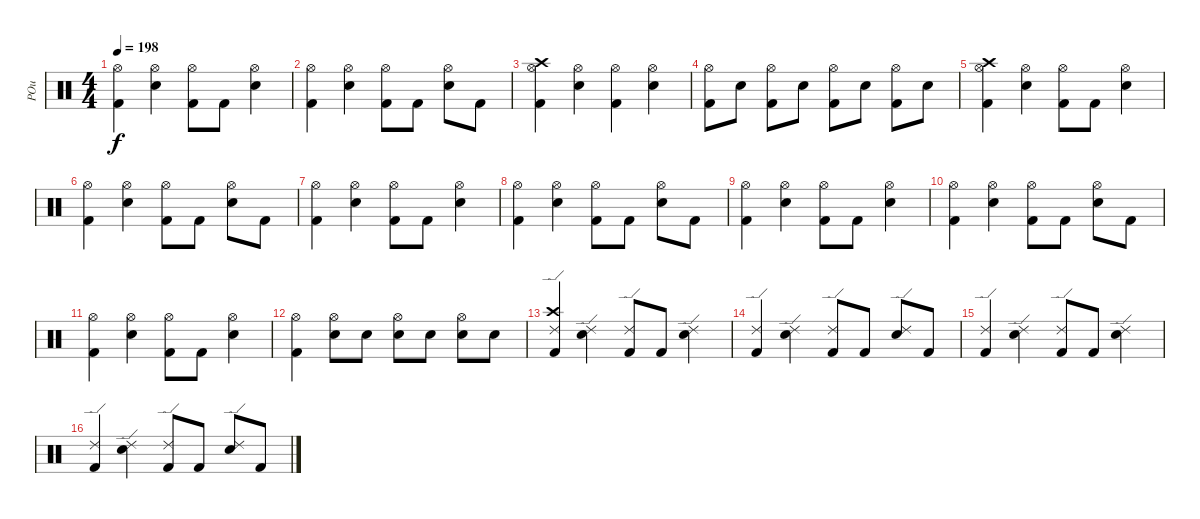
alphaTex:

\track ("POu" "POu") {instrument percussion}
\staff {score}
\articulation defaults
\ts (4 4)
\tempo 198
\clef neutral
\ks c
("Kick (hit) 2" "Hi-Hat (open)").4{dy f} ("Electric Snare (hit)" "Hi-Hat (open)").4 ("Kick (hit) 2" "Hi-Hat (open)").8 "Kick (hit) 2".8 ("Electric Snare (hit)" "Hi-Hat (open)").4 |
("Kick (hit) 2" "Hi-Hat (open)").4 ("Electric Snare (hit)" "Hi-Hat (open)").4 ("Kick (hit) 2" "Hi-Hat (open)").8 "Kick (hit) 2".8 ("Electric Snare (hit)" "Hi-Hat (open)").8 "Kick (hit) 2".8 |
("Crash high (hit)" "Kick (hit) 2" "Hi-Hat (open)").4 ("Electric Snare (hit)" "Hi-Hat (open)").4 ("Kick (hit) 2" "Hi-Hat (open)").4 ("Electric Snare (hit)" "Hi-Hat (open)").4 |
("Kick (hit) 2" "Hi-Hat (open)").8 "Electric Snare (hit)".8 ("Kick (hit) 2" "Hi-Hat (open)").8 "Electric Snare (hit)".8 ("Kick (hit) 2" "Hi-Hat (open)").8 "Electric Snare (hit)".8 ("Kick (hit) 2" "Hi-Hat (open)").8 "Electric Snare (hit)".8 |
("Crash high (hit)" "Kick (hit) 2" "Hi-Hat (open)").4 ("Electric Snare (hit)" "Hi-Hat (open)").4 ("Kick (hit) 2" "Hi-Hat (open)").8 "Kick (hit) 2".8 ("Electric Snare (hit)" "Hi-Hat (open)").4 |
("Kick (hit) 2" "Hi-Hat (open)").4 ("Electric Snare (hit)" "Hi-Hat (open)").4 ("Kick (hit) 2" "Hi-Hat (open)").8 "Kick (hit) 2".8 ("Electric Snare (hit)" "Hi-Hat (open)").8 "Kick (hit) 2".8 |
("Kick (hit) 2" "Hi-Hat (open)").4 ("Electric Snare (hit)" "Hi-Hat (open)").4 ("Kick (hit) 2" "Hi-Hat (open)").8 "Kick (hit) 2".8 ("Electric Snare (hit)" "Hi-Hat (open)").4 |
("Kick (hit) 2" "Hi-Hat (open)").4 ("Electric Snare (hit)" "Hi-Hat (open)").4 ("Kick (hit) 2" "Hi-Hat (open)").8 "Kick (hit) 2".8 ("Electric Snare (hit)" "Hi-Hat (open)").8 "Kick (hit) 2".8 |
("Kick (hit) 2" "Hi-Hat (open)").4 ("Electric Snare (hit)" "Hi-Hat (open)").4 ("Kick (hit) 2" "Hi-Hat (open)").8 "Kick (hit) 2".8 ("Electric Snare (hit)" "Hi-Hat (open)").4 |
("Kick (hit) 2" "Hi-Hat (open)").4 ("Electric Snare (hit)" "Hi-Hat (open)").4 ("Kick (hit) 2" "Hi-Hat (open)").8 "Kick (hit) 2".8 ("Electric Snare (hit)" "Hi-Hat (open)").8 "Kick (hit) 2".8 |
("Kick (hit) 2" "Hi-Hat (open)").4 ("Electric Snare (hit)" "Hi-Hat (open)").4 ("Kick (hit) 2" "Hi-Hat (open)").8 "Kick (hit) 2".8 ("Electric Snare (hit)" "Hi-Hat (open)").4 |
("Kick (hit) 2" "Hi-Hat (open)").4 ("Electric Snare (hit)" "Hi-Hat (open)").8 "Electric Snare (hit)".8 ("Electric Snare (hit)" "Hi-Hat (open)").8 "Electric Snare (hit)".8 ("Electric Snare (hit)" "Hi-Hat (open)").8 "Electric Snare (hit)".8 |
("Crash high (hit)" "Kick (hit) 2" "Ride (edge) 2").4 ("Electric Snare (hit)" "Ride (edge) 2").4 ("Kick (hit) 2" "Ride (edge) 2").8 "Kick (hit) 2".8 ("Electric Snare (hit)" "Ride (edge) 2").4 |
("Kick (hit) 2" "Ride (edge) 2").4 ("Electric Snare (hit)" "Ride (edge) 2").4 ("Kick (hit) 2" "Ride (edge) 2").8 "Kick (hit) 2".8 ("Electric Snare (hit)" "Ride (edge) 2").8 "Kick (hit) 2".8 |
("Kick (hit) 2" "Ride (edge) 2").4 ("Electric Snare (hit)" "Ride (edge) 2").4 ("Kick (hit) 2" "Ride (edge) 2").8 "Kick (hit) 2".8 ("Electric Snare (hit)" "Ride (edge) 2").4 |
("Kick (hit) 2" "Ride (edge) 2").4 ("Electric Snare (hit)" "Ride (edge) 2").4 ("Kick (hit) 2" "Ride (edge) 2").8 "Kick (hit) 2".8 ("Electric Snare (hit)" "Ride (edge) 2").8 "Kick (hit) 2".8
